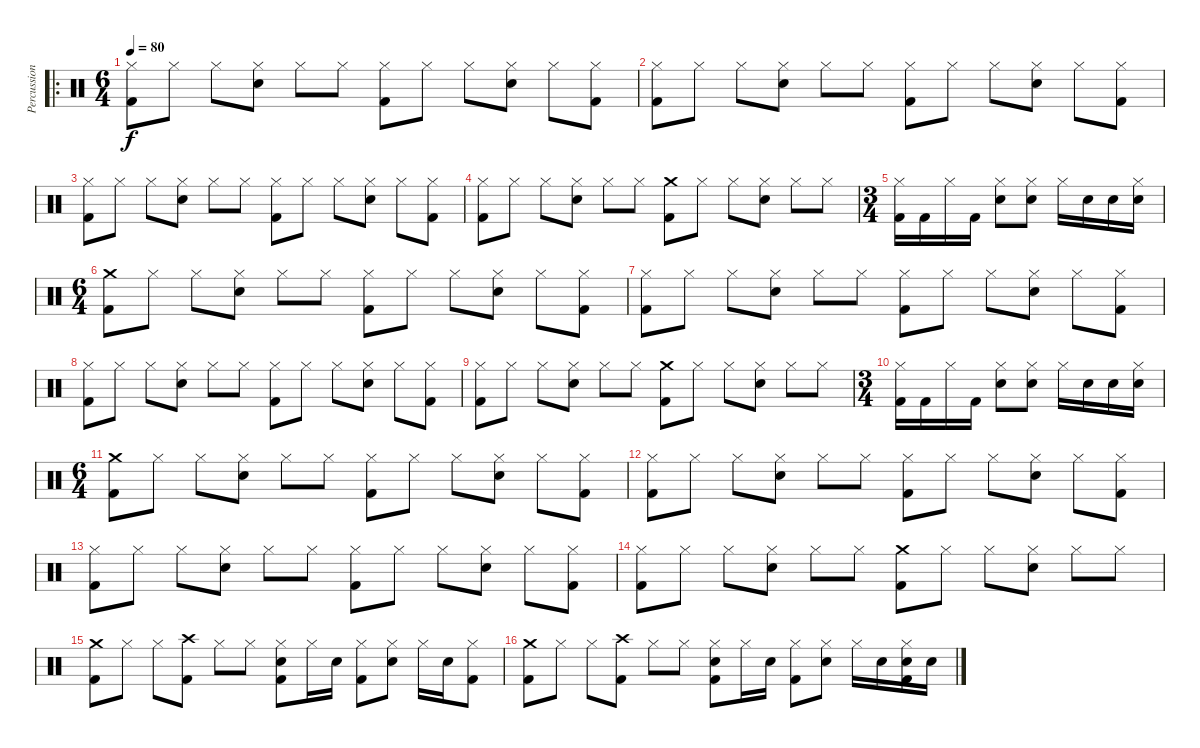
\track ("Percussions" "Percussion") {instrument percussion}
\staff {score}
\articulation defaults
\ro
\ts (6 4)
\tempo 80
\clef neutral
\ks c
("Hi-Hat (closed)" "Kick (hit) 2").8{dy f} "Hi-Hat (closed)".8 "Hi-Hat (closed)".8 ("Hi-Hat (closed)" "Electric Snare (hit)").8 "Hi-Hat (closed)".8 "Hi-Hat (closed)".8 ("Hi-Hat (closed)" "Kick (hit) 2").8 "Hi-Hat (closed)".8 "Hi-Hat (closed)".8 ("Hi-Hat (closed)" "Electric Snare (hit)").8 "Hi-Hat (closed)".8 ("Hi-Hat (closed)" "Kick (hit) 2").8 |
("Hi-Hat (closed)" "Kick (hit) 2").8 "Hi-Hat (closed)".8 "Hi-Hat (closed)".8 ("Hi-Hat (closed)" "Electric Snare (hit)").8 "Hi-Hat (closed)".8 "Hi-Hat (closed)".8 ("Hi-Hat (closed)" "Kick (hit) 2").8 "Hi-Hat (closed)".8 "Hi-Hat (closed)".8 ("Hi-Hat (closed)" "Electric Snare (hit)").8 "Hi-Hat (closed)".8 ("Hi-Hat (closed)" "Kick (hit) 2").8 |
("Hi-Hat (closed)" "Kick (hit) 2").8 "Hi-Hat (closed)".8 "Hi-Hat (closed)".8 ("Hi-Hat (closed)" "Electric Snare (hit)").8 "Hi-Hat (closed)".8 "Hi-Hat (closed)".8 ("Hi-Hat (closed)" "Kick (hit) 2").8 "Hi-Hat (closed)".8 "Hi-Hat (closed)".8 ("Hi-Hat (closed)" "Electric Snare (hit)").8 "Hi-Hat (closed)".8 ("Hi-Hat (closed)" "Kick (hit) 2").8 |
("Hi-Hat (closed)" "Kick (hit) 2").8 "Hi-Hat (closed)".8 "Hi-Hat (closed)".8 ("Hi-Hat (closed)" "Electric Snare (hit)").8 "Hi-Hat (closed)".8 "Hi-Hat (closed)".8 ("Crash medium (hit)" "Kick (hit) 2").8 "Hi-Hat (closed)".8 "Hi-Hat (closed)".8 ("Hi-Hat (closed)" "Electric Snare (hit)").8 "Hi-Hat (closed)".8 "Hi-Hat (closed)".8 |
\ts (3 4)
("Hi-Hat (closed)" "Kick (hit) 2").16 "Kick (hit) 2".16 "Hi-Hat (closed)".16 "Kick (hit) 2".16 ("Hi-Hat (closed)" "Electric Snare (hit)").8 ("Hi-Hat (closed)" "Electric Snare (hit)").8 "Hi-Hat (closed)".16 "Electric Snare (hit)".16 "Electric Snare (hit)".16 ("Hi-Hat (closed)" "Electric Snare (hit)").16 |
\ts (6 4)
("Crash medium (hit)" "Kick (hit) 2").8 "Hi-Hat (closed)".8 "Hi-Hat (closed)".8 ("Hi-Hat (closed)" "Electric Snare (hit)").8 "Hi-Hat (closed)".8 "Hi-Hat (closed)".8 ("Hi-Hat (closed)" "Kick (hit) 2").8 "Hi-Hat (closed)".8 "Hi-Hat (closed)".8 ("Hi-Hat (closed)" "Electric Snare (hit)").8 "Hi-Hat (closed)".8 ("Hi-Hat (closed)" "Kick (hit) 2").8 |
("Hi-Hat (closed)" "Kick (hit) 2").8 "Hi-Hat (closed)".8 "Hi-Hat (closed)".8 ("Hi-Hat (closed)" "Electric Snare (hit)").8 "Hi-Hat (closed)".8 "Hi-Hat (closed)".8 ("Hi-Hat (closed)" "Kick (hit) 2").8 "Hi-Hat (closed)".8 "Hi-Hat (closed)".8 ("Hi-Hat (closed)" "Electric Snare (hit)").8 "Hi-Hat (closed)".8 ("Hi-Hat (closed)" "Kick (hit) 2").8 |
("Hi-Hat (closed)" "Kick (hit) 2").8 "Hi-Hat (closed)".8 "Hi-Hat (closed)".8 ("Hi-Hat (closed)" "Electric Snare (hit)").8 "Hi-Hat (closed)".8 "Hi-Hat (closed)".8 ("Hi-Hat (closed)" "Kick (hit) 2").8 "Hi-Hat (closed)".8 "Hi-Hat (closed)".8 ("Hi-Hat (closed)" "Electric Snare (hit)").8 "Hi-Hat (closed)".8 ("Hi-Hat (closed)" "Kick (hit) 2").8 |
("Hi-Hat (closed)" "Kick (hit) 2").8 "Hi-Hat (closed)".8 "Hi-Hat (closed)".8 ("Hi-Hat (closed)" "Electric Snare (hit)").8 "Hi-Hat (closed)".8 "Hi-Hat (closed)".8 ("Crash medium (hit)" "Kick (hit) 2").8 "Hi-Hat (closed)".8 "Hi-Hat (closed)".8 ("Hi-Hat (closed)" "Electric Snare (hit)").8 "Hi-Hat (closed)".8 "Hi-Hat (closed)".8 |
\ts (3 4)
("Hi-Hat (closed)" "Kick (hit) 2").16 "Kick (hit) 2".16 "Hi-Hat (closed)".16 "Kick (hit) 2".16 ("Hi-Hat (closed)" "Electric Snare (hit)").8 ("Hi-Hat (closed)" "Electric Snare (hit)").8 "Hi-Hat (closed)".16 "Electric Snare (hit)".16 "Electric Snare (hit)".16 ("Hi-Hat (closed)" "Electric Snare (hit)").16 |
\ts (6 4)
("Crash medium (hit)" "Kick (hit) 2").8 "Hi-Hat (closed)".8 "Hi-Hat (closed)".8 ("Hi-Hat (closed)" "Electric Snare (hit)").8 "Hi-Hat (closed)".8 "Hi-Hat (closed)".8 ("Hi-Hat (closed)" "Kick (hit) 2").8 "Hi-Hat (closed)".8 "Hi-Hat (closed)".8 ("Hi-Hat (closed)" "Electric Snare (hit)").8 "Hi-Hat (closed)".8 ("Hi-Hat (closed)" "Kick (hit) 2").8 |
("Hi-Hat (closed)" "Kick (hit) 2").8 "Hi-Hat (closed)".8 "Hi-Hat (closed)".8 ("Hi-Hat (closed)" "Electric Snare (hit)").8 "Hi-Hat (closed)".8 "Hi-Hat (closed)".8 ("Hi-Hat (closed)" "Kick (hit) 2").8 "Hi-Hat (closed)".8 "Hi-Hat (closed)".8 ("Hi-Hat (closed)" "Electric Snare (hit)").8 "Hi-Hat (closed)".8 ("Hi-Hat (closed)" "Kick (hit) 2").8 |
("Hi-Hat (closed)" "Kick (hit) 2").8 "Hi-Hat (closed)".8 "Hi-Hat (closed)".8 ("Hi-Hat (closed)" "Electric Snare (hit)").8 "Hi-Hat (closed)".8 "Hi-Hat (closed)".8 ("Hi-Hat (closed)" "Kick (hit) 2").8 "Hi-Hat (closed)".8 "Hi-Hat (closed)".8 ("Hi-Hat (closed)" "Electric Snare (hit)").8 "Hi-Hat (closed)".8 ("Hi-Hat (closed)" "Kick (hit) 2").8 |
("Hi-Hat (closed)" "Kick (hit) 2").8 "Hi-Hat (closed)".8 "Hi-Hat (closed)".8 ("Hi-Hat (closed)" "Electric Snare (hit)").8 "Hi-Hat (closed)".8 "Hi-Hat (closed)".8 ("Crash medium (hit)" "Kick (hit) 2").8 "Hi-Hat (closed)".8 "Hi-Hat (closed)".8 ("Hi-Hat (closed)" "Electric Snare (hit)").8 "Hi-Hat (closed)".8 "Hi-Hat (closed)".8 |
("Crash medium (hit)" "Kick (hit) 2").8 "Hi-Hat (closed)".8 "Hi-Hat (closed)".8 ("Crash high (hit)" "Kick (hit) 2").8 "Hi-Hat (closed)".8 "Hi-Hat (closed)".8 ("Hi-Hat (closed)" "Electric Snare (hit)" "Kick (hit) 2").8 "Hi-Hat (closed)".16 "Electric Snare (hit)".16 ("Hi-Hat (closed)" "Kick (hit) 2").8 ("Hi-Hat (closed)" "Electric Snare (hit)").8 "Hi-Hat (closed)".16 "Electric Snare (hit)".16 ("Hi-Hat (closed)" "Kick (hit) 2").8 |
("Crash medium (hit)" "Kick (hit) 2").8 "Hi-Hat (closed)".8 "Hi-Hat (closed)".8 ("Crash high (hit)" "Kick (hit) 2").8 "Hi-Hat (closed)".8 "Hi-Hat (closed)".8 ("Hi-Hat (closed)" "Electric Snare (hit)" "Kick (hit) 2").8 "Hi-Hat (closed)".16 "Electric Snare (hit)".16 ("Hi-Hat (closed)" "Kick (hit) 2").8 ("Hi-Hat (closed)" "Electric Snare (hit)").8 "Hi-Hat (closed)".16 "Electric Snare (hit)".16 ("Hi-Hat (closed)" "Electric Snare (hit)" "Kick (hit) 2").16 "Electric Snare (hit)".16
